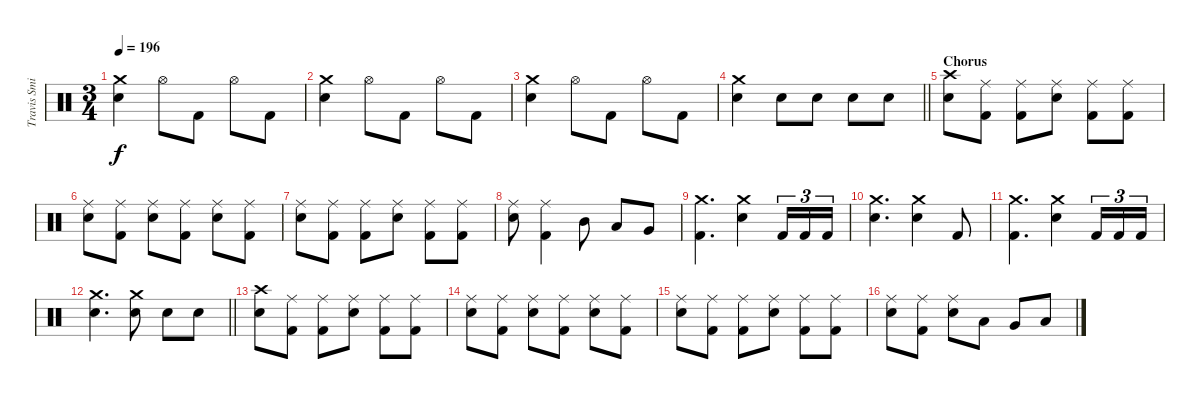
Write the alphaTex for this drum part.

\track ("Travis Smith" "Travis Smi") {instrument percussion}
\staff {score}
\articulation defaults
\ts (3 4)
\tempo 196
\clef neutral
\ks c
("Crash medium (hit)" "Electric Snare (hit)").4{dy f} "Hi-Hat (open)".8 "Kick (hit) 2".8 "Hi-Hat (open)".8 "Kick (hit) 2".8 |
("Crash medium (hit)" "Electric Snare (hit)").4 "Hi-Hat (open)".8 "Kick (hit) 2".8 "Hi-Hat (open)".8 "Kick (hit) 2".8 |
("Crash medium (hit)" "Electric Snare (hit)").4 "Hi-Hat (open)".8 "Kick (hit) 2".8 "Hi-Hat (open)".8 "Kick (hit) 2".8 |
\barLineRight lightlight
("Crash medium (hit)" "Electric Snare (hit)").4 "Electric Snare (hit)".8 "Electric Snare (hit)".8 "Electric Snare (hit)".8 "Electric Snare (hit)".8 |
\section ("" "Chorus")
("Crash high (hit)" "Electric Snare (hit)").8 ("Ride (middle)" "Kick (hit) 2").8 ("Ride (middle)" "Kick (hit) 2").8 ("Ride (middle)" "Electric Snare (hit)").8 ("Ride (middle)" "Kick (hit) 2").8 ("Ride (middle)" "Kick (hit) 2").8 |
("Ride (middle)" "Electric Snare (hit)").8 ("Ride (middle)" "Kick (hit) 2").8 ("Ride (middle)" "Electric Snare (hit)").8 ("Ride (middle)" "Kick (hit) 2").8 ("Ride (middle)" "Electric Snare (hit)").8 ("Ride (middle)" "Kick (hit) 2").8 |
("Ride (middle)" "Electric Snare (hit)").8 ("Ride (middle)" "Kick (hit) 2").8 ("Ride (middle)" "Kick (hit) 2").8 ("Ride (middle)" "Electric Snare (hit)").8 ("Ride (middle)" "Kick (hit) 2").8 ("Ride (middle)" "Kick (hit) 2").8 |
("Ride (middle)" "Electric Snare (hit)").8 ("Ride (middle)" "Kick (hit) 2").4 "Mid Tom (hit)".8 "Low Tom (hit)".8 "Very Low Tom (hit)".8 |
("Crash medium (hit)" "Kick (hit) 2").4{d} ("Crash medium (hit)" "Electric Snare (hit)").4 "Kick (hit) 2".16{tu (3 2)} "Kick (hit) 2".16{tu (3 2)} "Kick (hit) 2".16{tu (3 2)} |
("Crash medium (hit)" "Electric Snare (hit)").4{d} ("Crash medium (hit)" "Electric Snare (hit)").4 "Kick (hit) 2".8 |
("Crash medium (hit)" "Kick (hit) 2").4{d} ("Crash medium (hit)" "Electric Snare (hit)").4 "Kick (hit) 2".16{tu (3 2)} "Kick (hit) 2".16{tu (3 2)} "Kick (hit) 2".16{tu (3 2)} |
\barLineRight lightlight
("Crash medium (hit)" "Electric Snare (hit)").4{d} ("Crash medium (hit)" "Electric Snare (hit)").8 "Electric Snare (hit)".8 "Electric Snare (hit)".8 |
("Crash high (hit)" "Electric Snare (hit)").8 ("Ride (middle)" "Kick (hit) 2").8 ("Ride (middle)" "Kick (hit) 2").8 ("Ride (middle)" "Electric Snare (hit)").8 ("Ride (middle)" "Kick (hit) 2").8 ("Ride (middle)" "Kick (hit) 2").8 |
("Ride (middle)" "Electric Snare (hit)").8 ("Ride (middle)" "Kick (hit) 2").8 ("Ride (middle)" "Electric Snare (hit)").8 ("Ride (middle)" "Kick (hit) 2").8 ("Ride (middle)" "Electric Snare (hit)").8 ("Ride (middle)" "Kick (hit) 2").8 |
("Ride (middle)" "Electric Snare (hit)").8 ("Ride (middle)" "Kick (hit) 2").8 ("Ride (middle)" "Kick (hit) 2").8 ("Ride (middle)" "Electric Snare (hit)").8 ("Ride (middle)" "Kick (hit) 2").8 ("Ride (middle)" "Kick (hit) 2").8 |
("Ride (middle)" "Electric Snare (hit)").8 ("Ride (middle)" "Kick (hit) 2").8 ("Ride (middle)" "Electric Snare (hit)").8 "Low Tom (hit)".8 "Very Low Tom (hit)".8 "Low Floor Tom (hit)".8
